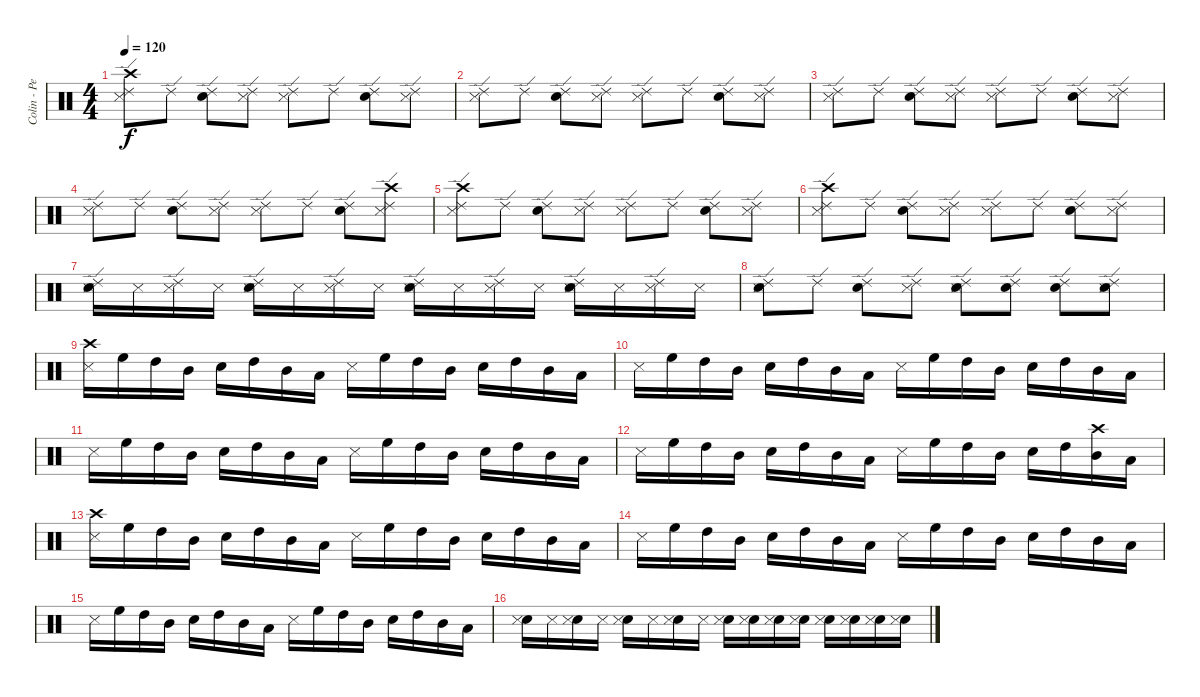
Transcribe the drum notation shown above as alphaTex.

\track ("Colin - Percussion" "Colin - Pe") {instrument percussion}
\staff {score}
\articulation defaults
\ts (4 4)
\tempo 120
\clef neutral
\ks c
("Ride (edge) 2" "Crash high (hit)" "Metronome (hit)").8{dy f} "Ride (edge) 2".8 ("Ride (edge) 2" "Electric Snare (hit)").8 ("Ride (edge) 2" "Metronome (hit)").8 ("Ride (edge) 2" "Metronome (hit)").8 "Ride (edge) 2".8 ("Ride (edge) 2" "Electric Snare (hit)").8 ("Ride (edge) 2" "Metronome (hit)").8 |
("Ride (edge) 2" "Metronome (hit)").8 "Ride (edge) 2".8 ("Ride (edge) 2" "Electric Snare (hit)").8 ("Ride (edge) 2" "Metronome (hit)").8 ("Ride (edge) 2" "Metronome (hit)").8 "Ride (edge) 2".8 ("Ride (edge) 2" "Electric Snare (hit)").8 ("Ride (edge) 2" "Metronome (hit)").8 |
("Ride (edge) 2" "Metronome (hit)").8 "Ride (edge) 2".8 ("Ride (edge) 2" "Electric Snare (hit)").8 ("Ride (edge) 2" "Metronome (hit)").8 ("Ride (edge) 2" "Metronome (hit)").8 "Ride (edge) 2".8 ("Ride (edge) 2" "Electric Snare (hit)").8 ("Ride (edge) 2" "Metronome (hit)").8 |
("Ride (edge) 2" "Metronome (hit)").8 "Ride (edge) 2".8 ("Ride (edge) 2" "Electric Snare (hit)").8 ("Ride (edge) 2" "Metronome (hit)").8 ("Ride (edge) 2" "Metronome (hit)").8 "Ride (edge) 2".8 ("Ride (edge) 2" "Electric Snare (hit)").8 ("Ride (edge) 2" "Crash high (hit)" "Metronome (hit)").8 |
("Ride (edge) 2" "Crash high (hit)" "Metronome (hit)").8 "Ride (edge) 2".8 ("Ride (edge) 2" "Electric Snare (hit)").8 ("Ride (edge) 2" "Metronome (hit)").8 ("Ride (edge) 2" "Metronome (hit)").8 "Ride (edge) 2".8 ("Ride (edge) 2" "Electric Snare (hit)").8 ("Ride (edge) 2" "Metronome (hit)").8 |
("Ride (edge) 2" "Crash high (hit)" "Metronome (hit)").8 "Ride (edge) 2".8 ("Ride (edge) 2" "Electric Snare (hit)").8 ("Ride (edge) 2" "Metronome (hit)").8 ("Ride (edge) 2" "Metronome (hit)").8 "Ride (edge) 2".8 ("Ride (edge) 2" "Electric Snare (hit)").8 ("Ride (edge) 2" "Metronome (hit)").8 |
("Ride (edge) 2" "Electric Snare (hit)" "Metronome (hit)").16 "Metronome (hit)".16 ("Ride (edge) 2" "Metronome (hit)").16 "Metronome (hit)".16 ("Ride (edge) 2" "Electric Snare (hit)" "Metronome (hit)").16 "Metronome (hit)".16 ("Ride (edge) 2" "Metronome (hit)").16 "Metronome (hit)".16 ("Ride (edge) 2" "Electric Snare (hit)" "Metronome (hit)").16 "Metronome (hit)".16 ("Ride (edge) 2" "Metronome (hit)").16 "Metronome (hit)".16 ("Ride (edge) 2" "Electric Snare (hit)" "Metronome (hit)").16 "Metronome (hit)".16 ("Ride (edge) 2" "Metronome (hit)").16 "Metronome (hit)".16 |
("Ride (edge) 2" "Electric Snare (hit)" "Metronome (hit)").8 "Ride (edge) 2".8 ("Ride (edge) 2" "Electric Snare (hit)").8 ("Ride (edge) 2" "Metronome (hit)").8 ("Ride (edge) 2" "Electric Snare (hit)" "Metronome (hit)").8 ("Ride (edge) 2" "Electric Snare (hit)").8 ("Ride (edge) 2" "Electric Snare (hit)").8 ("Ride (edge) 2" "Electric Snare (hit)" "Metronome (hit)").8 |
("Crash high (hit)" "Metronome (hit)").16 "High Floor Tom (hit)".16 "High Tom (hit)".16 "Mid Tom (hit)".16 "Electric Snare (hit)".16 "High Tom (hit)".16 "Mid Tom (hit)".16 "Low Tom (hit)".16 "Metronome (hit)".16 "High Floor Tom (hit)".16 "High Tom (hit)".16 "Mid Tom (hit)".16 "Electric Snare (hit)".16 "High Tom (hit)".16 "Mid Tom (hit)".16 "Low Tom (hit)".16 |
"Metronome (hit)".16 "High Floor Tom (hit)".16 "High Tom (hit)".16 "Mid Tom (hit)".16 "Electric Snare (hit)".16 "High Tom (hit)".16 "Mid Tom (hit)".16 "Low Tom (hit)".16 "Metronome (hit)".16 "High Floor Tom (hit)".16 "High Tom (hit)".16 "Mid Tom (hit)".16 "Electric Snare (hit)".16 "High Tom (hit)".16 "Mid Tom (hit)".16 "Low Tom (hit)".16 |
"Metronome (hit)".16 "High Floor Tom (hit)".16 "High Tom (hit)".16 "Mid Tom (hit)".16 "Electric Snare (hit)".16 "High Tom (hit)".16 "Mid Tom (hit)".16 "Low Tom (hit)".16 "Metronome (hit)".16 "High Floor Tom (hit)".16 "High Tom (hit)".16 "Mid Tom (hit)".16 "Electric Snare (hit)".16 "High Tom (hit)".16 "Mid Tom (hit)".16 "Low Tom (hit)".16 |
"Metronome (hit)".16 "High Floor Tom (hit)".16 "High Tom (hit)".16 "Mid Tom (hit)".16 "Electric Snare (hit)".16 "High Tom (hit)".16 "Mid Tom (hit)".16 "Low Tom (hit)".16 "Metronome (hit)".16 "High Floor Tom (hit)".16 "High Tom (hit)".16 "Mid Tom (hit)".16 "Electric Snare (hit)".16 "High Tom (hit)".16 ("Crash high (hit)" "Mid Tom (hit)").16 "Low Tom (hit)".16 |
("Crash high (hit)" "Metronome (hit)").16 "High Floor Tom (hit)".16 "High Tom (hit)".16 "Mid Tom (hit)".16 "Electric Snare (hit)".16 "High Tom (hit)".16 "Mid Tom (hit)".16 "Low Tom (hit)".16 "Metronome (hit)".16 "High Floor Tom (hit)".16 "High Tom (hit)".16 "Mid Tom (hit)".16 "Electric Snare (hit)".16 "High Tom (hit)".16 "Mid Tom (hit)".16 "Low Tom (hit)".16 |
"Metronome (hit)".16 "High Floor Tom (hit)".16 "High Tom (hit)".16 "Mid Tom (hit)".16 "Electric Snare (hit)".16 "High Tom (hit)".16 "Mid Tom (hit)".16 "Low Tom (hit)".16 "Metronome (hit)".16 "High Floor Tom (hit)".16 "High Tom (hit)".16 "Mid Tom (hit)".16 "Electric Snare (hit)".16 "High Tom (hit)".16 "Mid Tom (hit)".16 "Low Tom (hit)".16 |
"Metronome (hit)".16 "High Floor Tom (hit)".16 "High Tom (hit)".16 "Mid Tom (hit)".16 "Electric Snare (hit)".16 "High Tom (hit)".16 "Mid Tom (hit)".16 "Low Tom (hit)".16 "Metronome (hit)".16 "High Floor Tom (hit)".16 "High Tom (hit)".16 "Mid Tom (hit)".16 "Electric Snare (hit)".16 "High Tom (hit)".16 "Mid Tom (hit)".16 "Low Tom (hit)".16 |
("Electric Snare (hit)" "Metronome (hit)").16{volume 11} "Metronome (hit)".16 ("Electric Snare (hit)" "Metronome (hit)").16 "Metronome (hit)".16 ("Electric Snare (hit)" "Metronome (hit)").16 "Metronome (hit)".16 ("Electric Snare (hit)" "Metronome (hit)").16 "Metronome (hit)".16 ("Electric Snare (hit)" "Metronome (hit)").16 ("Electric Snare (hit)" "Metronome (hit)").16 ("Electric Snare (hit)" "Metronome (hit)").16 ("Electric Snare (hit)" "Metronome (hit)").16 ("Electric Snare (hit)" "Metronome (hit)").16 ("Electric Snare (hit)" "Metronome (hit)").16 ("Electric Snare (hit)" "Metronome (hit)").16 ("Electric Snare (hit)" "Metronome (hit)").16
